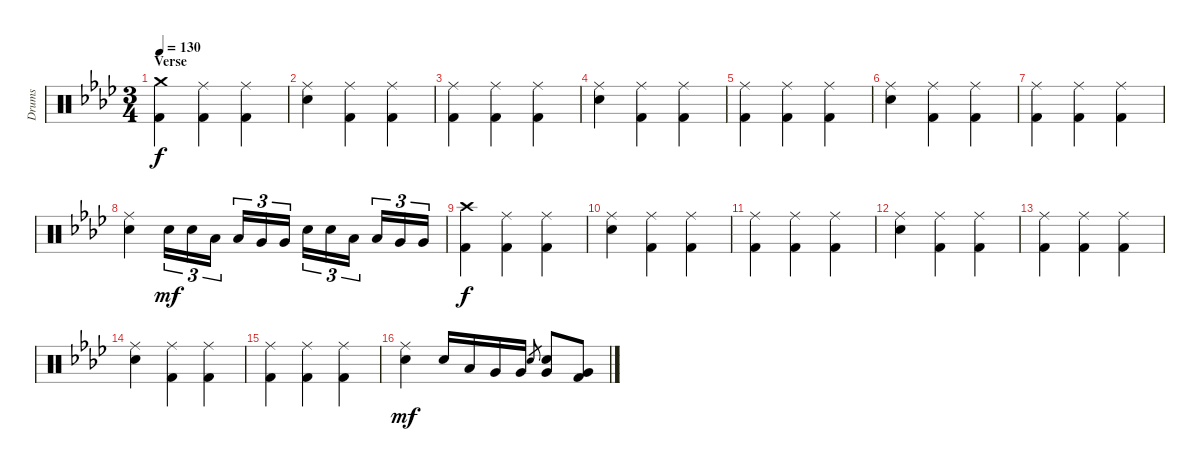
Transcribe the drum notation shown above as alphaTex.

\track ("Drums" "Drums") {instrument percussion}
\staff {score}
\articulation defaults
\ts (3 4)
\section ("" "Verse")
\tempo 130
\clef neutral
\ks ab
("Crash medium (hit)" "Kick (hit) 2").4{dy f} ("Ride (middle)" "Kick (hit) 2").4 ("Ride (middle)" "Kick (hit) 2").4 |
("Ride (middle)" "Electric Snare (hit)").4 ("Ride (middle)" "Kick (hit) 2").4 ("Ride (middle)" "Kick (hit) 2").4 |
("Ride (middle)" "Kick (hit) 2").4 ("Ride (middle)" "Kick (hit) 2").4 ("Ride (middle)" "Kick (hit) 2").4 |
("Ride (middle)" "Electric Snare (hit)").4 ("Ride (middle)" "Kick (hit) 2").4 ("Ride (middle)" "Kick (hit) 2").4 |
("Ride (middle)" "Kick (hit) 2").4 ("Ride (middle)" "Kick (hit) 2").4 ("Ride (middle)" "Kick (hit) 2").4 |
("Ride (middle)" "Electric Snare (hit)").4 ("Ride (middle)" "Kick (hit) 2").4 ("Ride (middle)" "Kick (hit) 2").4 |
("Ride (middle)" "Kick (hit) 2").4 ("Ride (middle)" "Kick (hit) 2").4 ("Ride (middle)" "Kick (hit) 2").4 |
("Ride (middle)" "Electric Snare (hit)").4 "Electric Snare (hit)".16{tu (3 2) dy mf} "Electric Snare (hit)".16{tu (3 2)} "Low Tom (hit)".16{tu (3 2) beam splitsecondary} "Low Tom (hit)".16{tu (3 2)} "Very Low Tom (hit)".16{tu (3 2)} "Very Low Tom (hit)".16{tu (3 2)} "Electric Snare (hit)".16{tu (3 2)} "Electric Snare (hit)".16{tu (3 2)} "Low Tom (hit)".16{tu (3 2) beam splitsecondary} "Low Tom (hit)".16{tu (3 2)} "Very Low Tom (hit)".16{tu (3 2)} "Very Low Tom (hit)".16{tu (3 2)} |
("Crash high (hit)" "Kick (hit) 2").4{dy f} ("Ride (middle)" "Kick (hit) 2").4 ("Ride (middle)" "Kick (hit) 2").4 |
("Ride (middle)" "Electric Snare (hit)").4 ("Ride (middle)" "Kick (hit) 2").4 ("Ride (middle)" "Kick (hit) 2").4 |
("Ride (middle)" "Kick (hit) 2").4 ("Ride (middle)" "Kick (hit) 2").4 ("Ride (middle)" "Kick (hit) 2").4 |
("Ride (middle)" "Electric Snare (hit)").4 ("Ride (middle)" "Kick (hit) 2").4 ("Ride (middle)" "Kick (hit) 2").4 |
("Ride (middle)" "Kick (hit) 2").4 ("Ride (middle)" "Kick (hit) 2").4 ("Ride (middle)" "Kick (hit) 2").4 |
("Ride (middle)" "Electric Snare (hit)").4 ("Ride (middle)" "Kick (hit) 2").4 ("Ride (middle)" "Kick (hit) 2").4 |
("Ride (middle)" "Kick (hit) 2").4 ("Ride (middle)" "Kick (hit) 2").4 ("Ride (middle)" "Kick (hit) 2").4 |
("Ride (middle)" "Electric Snare (hit)").4{dy mf} "Electric Snare (hit)".16 "Low Tom (hit)".16 "Very Low Tom (hit)".16 "Very Low Tom (hit)".16 "Electric Snare (hit)".8{gr} ("Electric Snare (hit)" "Very Low Tom (hit)").8 ("Very Low Tom (hit)" "Kick (hit) 2").8
